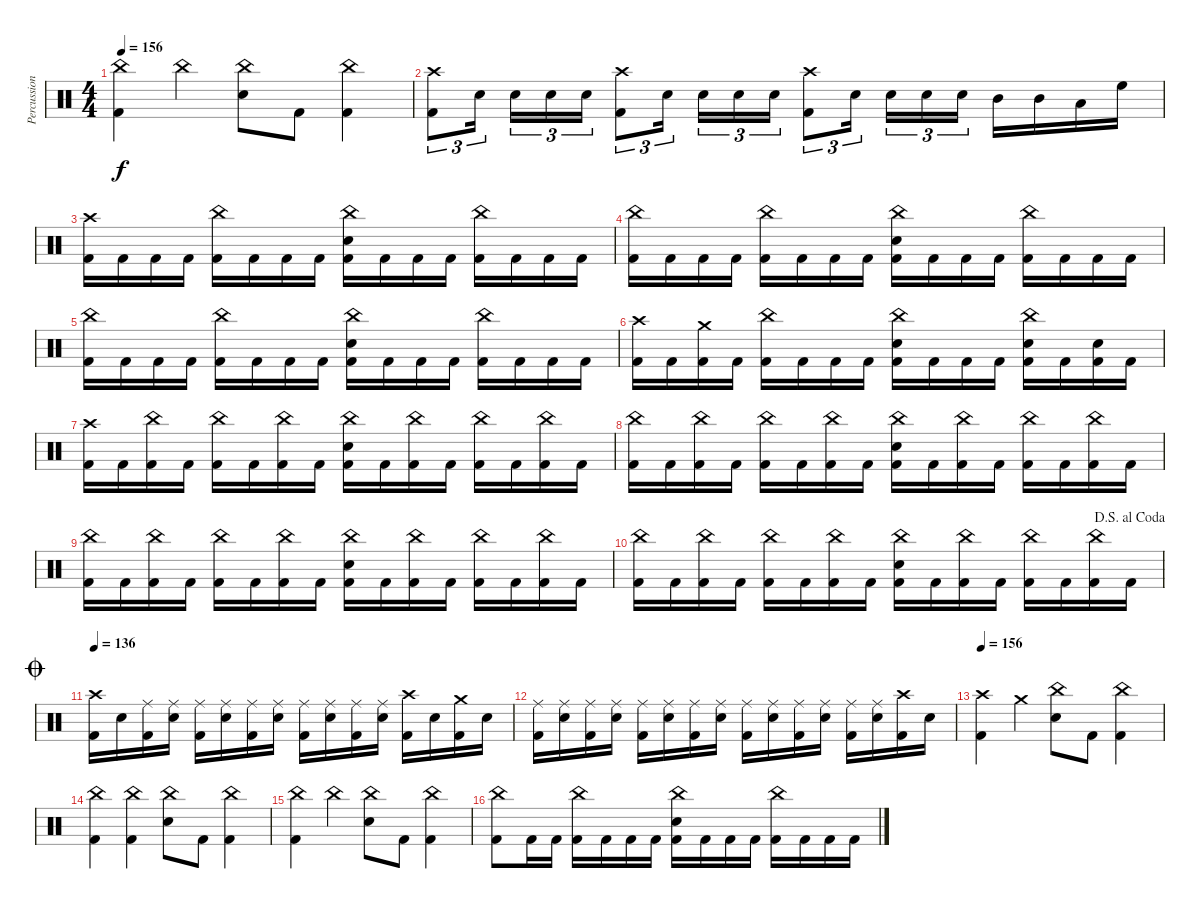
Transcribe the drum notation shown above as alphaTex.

\track ("Percussion" "Percussion") {instrument percussion}
\staff {score}
\articulation defaults
\ts (4 4)
\tempo 156
\clef neutral
\ks c
("China (hit)" "Kick (hit) 2").4{dy f} "China (hit)".4 ("China (hit)" "Electric Snare (hit)").8 "Kick (hit) 2".8 ("China (hit)" "Kick (hit) 2").4 |
("Crash high (hit)" "Kick (hit) 2").8{tu (3 2)} "Electric Snare (hit)".16{tu (3 2) beam splitsecondary} "Electric Snare (hit)".16{tu (3 2)} "Electric Snare (hit)".16{tu (3 2)} "Electric Snare (hit)".16{tu (3 2)} ("Crash high (hit)" "Kick (hit) 2").8{tu (3 2)} "Electric Snare (hit)".16{tu (3 2) beam splitsecondary} "Electric Snare (hit)".16{tu (3 2)} "Electric Snare (hit)".16{tu (3 2)} "Electric Snare (hit)".16{tu (3 2)} ("Crash high (hit)" "Kick (hit) 2").8{tu (3 2)} "Electric Snare (hit)".16{tu (3 2) beam splitsecondary} "Electric Snare (hit)".16{tu (3 2)} "Electric Snare (hit)".16{tu (3 2)} "Electric Snare (hit)".16{tu (3 2)} "Mid Tom (hit)".16 "Mid Tom (hit)".16 "Low Tom (hit)".16 "High Floor Tom (hit)".16 |
("Crash high (hit)" "Kick (hit) 2").16 "Kick (hit) 2".16 "Kick (hit) 2".16 "Kick (hit) 2".16 ("China (hit)" "Kick (hit) 2").16 "Kick (hit) 2".16 "Kick (hit) 2".16 "Kick (hit) 2".16 ("China (hit)" "Electric Snare (hit)" "Kick (hit) 2").16 "Kick (hit) 2".16 "Kick (hit) 2".16 "Kick (hit) 2".16 ("China (hit)" "Kick (hit) 2").16 "Kick (hit) 2".16 "Kick (hit) 2".16 "Kick (hit) 2".16 |
("China (hit)" "Kick (hit) 2").16 "Kick (hit) 2".16 "Kick (hit) 2".16 "Kick (hit) 2".16 ("China (hit)" "Kick (hit) 2").16 "Kick (hit) 2".16 "Kick (hit) 2".16 "Kick (hit) 2".16 ("China (hit)" "Electric Snare (hit)" "Kick (hit) 2").16 "Kick (hit) 2".16 "Kick (hit) 2".16 "Kick (hit) 2".16 ("China (hit)" "Kick (hit) 2").16 "Kick (hit) 2".16 "Kick (hit) 2".16 "Kick (hit) 2".16 |
("China (hit)" "Kick (hit) 2").16 "Kick (hit) 2".16 "Kick (hit) 2".16 "Kick (hit) 2".16 ("China (hit)" "Kick (hit) 2").16 "Kick (hit) 2".16 "Kick (hit) 2".16 "Kick (hit) 2".16 ("China (hit)" "Electric Snare (hit)" "Kick (hit) 2").16 "Kick (hit) 2".16 "Kick (hit) 2".16 "Kick (hit) 2".16 ("China (hit)" "Kick (hit) 2").16 "Kick (hit) 2".16 "Kick (hit) 2".16 "Kick (hit) 2".16 |
("Crash high (hit)" "Kick (hit) 2").16 "Kick (hit) 2".16 ("Crash medium (hit)" "Kick (hit) 2").16 "Kick (hit) 2".16 ("China (hit)" "Kick (hit) 2").16 "Kick (hit) 2".16 "Kick (hit) 2".16 "Kick (hit) 2".16 ("China (hit)" "Electric Snare (hit)" "Kick (hit) 2").16 "Kick (hit) 2".16 "Kick (hit) 2".16 "Kick (hit) 2".16 ("China (hit)" "Electric Snare (hit)" "Kick (hit) 2").16 "Kick (hit) 2".16 ("Electric Snare (hit)" "Kick (hit) 2").16 "Kick (hit) 2".16 |
("Crash high (hit)" "Kick (hit) 2").16 "Kick (hit) 2".16 ("China (hit)" "Kick (hit) 2").16 "Kick (hit) 2".16 ("China (hit)" "Kick (hit) 2").16 "Kick (hit) 2".16 ("China (hit)" "Kick (hit) 2").16 "Kick (hit) 2".16 ("China (hit)" "Electric Snare (hit)" "Kick (hit) 2").16 "Kick (hit) 2".16 ("China (hit)" "Kick (hit) 2").16 "Kick (hit) 2".16 ("China (hit)" "Kick (hit) 2").16 "Kick (hit) 2".16 ("China (hit)" "Kick (hit) 2").16 "Kick (hit) 2".16 |
("China (hit)" "Kick (hit) 2").16 "Kick (hit) 2".16 ("China (hit)" "Kick (hit) 2").16 "Kick (hit) 2".16 ("China (hit)" "Kick (hit) 2").16 "Kick (hit) 2".16 ("China (hit)" "Kick (hit) 2").16 "Kick (hit) 2".16 ("China (hit)" "Electric Snare (hit)" "Kick (hit) 2").16 "Kick (hit) 2".16 ("China (hit)" "Kick (hit) 2").16 "Kick (hit) 2".16 ("China (hit)" "Kick (hit) 2").16 "Kick (hit) 2".16 ("China (hit)" "Kick (hit) 2").16 "Kick (hit) 2".16 |
("China (hit)" "Kick (hit) 2").16 "Kick (hit) 2".16 ("China (hit)" "Kick (hit) 2").16 "Kick (hit) 2".16 ("China (hit)" "Kick (hit) 2").16 "Kick (hit) 2".16 ("China (hit)" "Kick (hit) 2").16 "Kick (hit) 2".16 ("China (hit)" "Electric Snare (hit)" "Kick (hit) 2").16 "Kick (hit) 2".16 ("China (hit)" "Kick (hit) 2").16 "Kick (hit) 2".16 ("China (hit)" "Kick (hit) 2").16 "Kick (hit) 2".16 ("China (hit)" "Kick (hit) 2").16 "Kick (hit) 2".16 |
\jump dalsegnoalcoda
("China (hit)" "Kick (hit) 2").16 "Kick (hit) 2".16 ("China (hit)" "Kick (hit) 2").16 "Kick (hit) 2".16 ("China (hit)" "Kick (hit) 2").16 "Kick (hit) 2".16 ("China (hit)" "Kick (hit) 2").16 "Kick (hit) 2".16 ("China (hit)" "Electric Snare (hit)" "Kick (hit) 2").16 "Kick (hit) 2".16 ("China (hit)" "Kick (hit) 2").16 "Kick (hit) 2".16 ("China (hit)" "Kick (hit) 2").16 "Kick (hit) 2".16 ("China (hit)" "Kick (hit) 2").16 "Kick (hit) 2".16 |
\jump coda
\tempo 136
("Crash high (hit)" "Kick (hit) 2").16 "Electric Snare (hit)".16 ("Ride (middle)" "Kick (hit) 2").16 ("Ride (middle)" "Electric Snare (hit)").16 ("Ride (middle)" "Kick (hit) 2").16 ("Ride (middle)" "Electric Snare (hit)").16 ("Ride (middle)" "Kick (hit) 2").16 ("Ride (middle)" "Electric Snare (hit)").16 ("Ride (middle)" "Kick (hit) 2").16 ("Ride (middle)" "Electric Snare (hit)").16 ("Ride (middle)" "Kick (hit) 2").16 ("Ride (middle)" "Electric Snare (hit)").16 ("Crash high (hit)" "Kick (hit) 2").16 "Electric Snare (hit)".16 ("Crash medium (hit)" "Kick (hit) 2").16 "Electric Snare (hit)".16 |
("Ride (middle)" "Kick (hit) 2").16 ("Ride (middle)" "Electric Snare (hit)").16 ("Ride (middle)" "Kick (hit) 2").16 ("Ride (middle)" "Electric Snare (hit)").16 ("Ride (middle)" "Kick (hit) 2").16 ("Ride (middle)" "Electric Snare (hit)").16 ("Ride (middle)" "Kick (hit) 2").16 ("Ride (middle)" "Electric Snare (hit)").16 ("Ride (middle)" "Kick (hit) 2").16 ("Ride (middle)" "Electric Snare (hit)").16 ("Ride (middle)" "Kick (hit) 2").16 ("Ride (middle)" "Electric Snare (hit)").16 ("Ride (middle)" "Kick (hit) 2").16 ("Ride (middle)" "Electric Snare (hit)").16 ("Crash high (hit)" "Kick (hit) 2").16 "Electric Snare (hit)".16 |
\tempo 156
("Crash high (hit)" "Kick (hit) 2").4 "Crash medium (hit)".4 ("China (hit)" "Electric Snare (hit)").8 "Kick (hit) 2".8 ("China (hit)" "Kick (hit) 2").4 |
("China (hit)" "Kick (hit) 2").4 ("China (hit)" "Kick (hit) 2").4 ("China (hit)" "Electric Snare (hit)").8 "Kick (hit) 2".8 ("China (hit)" "Kick (hit) 2").4 |
("China (hit)" "Kick (hit) 2").4 "China (hit)".4 ("China (hit)" "Electric Snare (hit)").8 "Kick (hit) 2".8 ("China (hit)" "Kick (hit) 2").4 |
("China (hit)" "Kick (hit) 2").8 "Kick (hit) 2".16 "Kick (hit) 2".16 ("China (hit)" "Kick (hit) 2").16 "Kick (hit) 2".16 "Kick (hit) 2".16 "Kick (hit) 2".16 ("China (hit)" "Electric Snare (hit)" "Kick (hit) 2").16 "Kick (hit) 2".16 "Kick (hit) 2".16 "Kick (hit) 2".16 ("China (hit)" "Kick (hit) 2").16 "Kick (hit) 2".16 "Kick (hit) 2".16 "Kick (hit) 2".16
